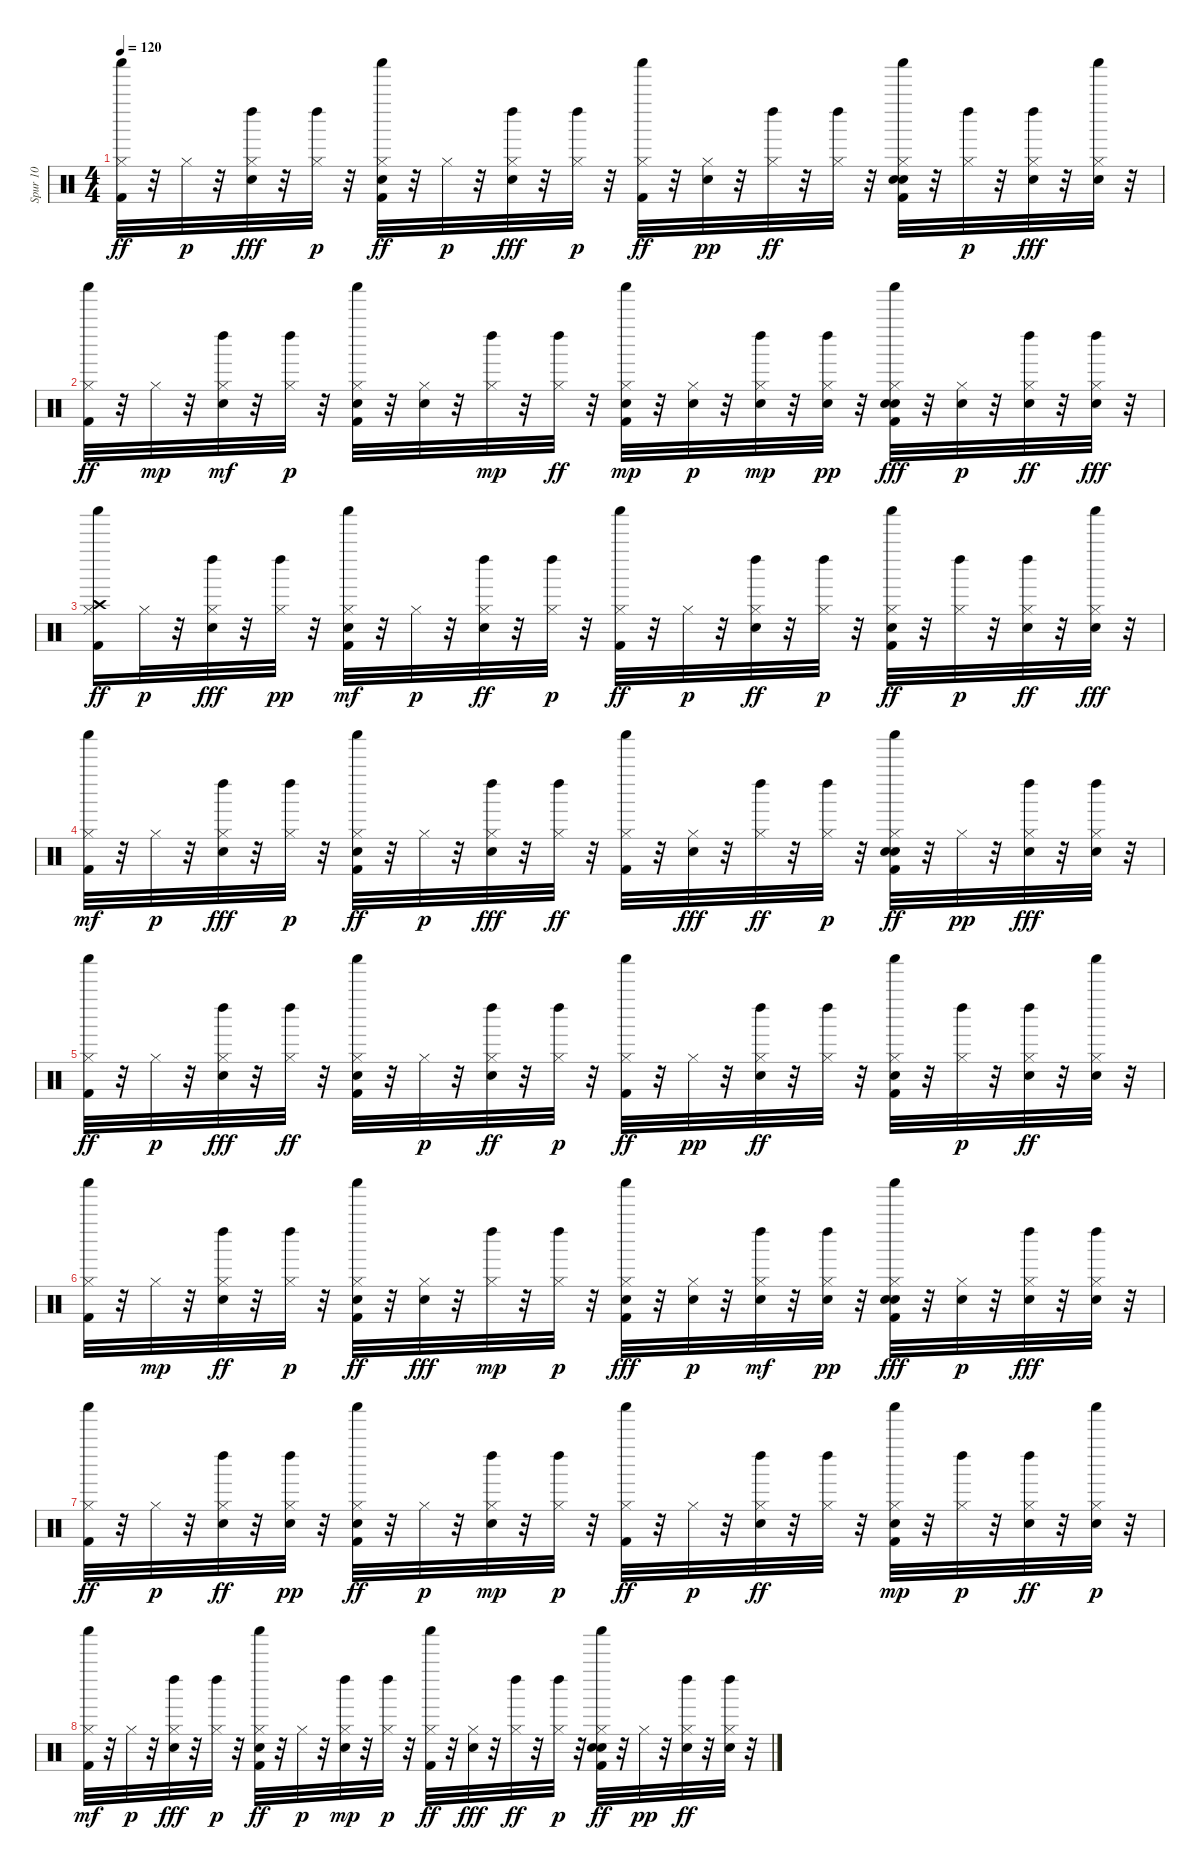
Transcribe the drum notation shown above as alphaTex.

\track ("Spur 10" "Spur 10") {instrument percussion}
\staff {score}
\articulation defaults
\ts (4 4)
\tempo 120
\clef neutral
\ks c
("Hi-Hat (closed)" "Kick (hit) 2" "Shaker (hit)").32{dy ff} r.32 "Hi-Hat (closed)".32{dy p} r.32 ("Hi-Hat (closed)" "Electric Snare (hit)" "Left Maraca (hit)").32{dy fff} r.32 ("Left Maraca (hit)" "Hi-Hat (closed)").32{dy p} r.32 ("Shaker (hit)" "Snare (hit) 2" "Kick (hit) 2" "Hi-Hat (closed)").32{dy ff} r.32 "Hi-Hat (closed)".32{dy p} r.32 ("Left Maraca (hit)" "Hi-Hat (closed)" "Electric Snare (hit)").32{dy fff} r.32 ("Left Maraca (hit)" "Hi-Hat (closed)").32{dy p} r.32 ("Hi-Hat (closed)" "Shaker (hit)" "Kick (hit) 2").32{dy ff} r.32 ("Electric Snare (hit)" "Hi-Hat (closed)").32{dy pp} r.32 ("Hi-Hat (closed)" "Left Maraca (hit)").32{dy ff} r.32 ("Hi-Hat (closed)" "Left Maraca (hit)").32 r.32 ("Hi-Hat (closed)" "Electric Snare (hit)" "Kick (hit) 2" "Shaker (hit)" "Snare (hit) 2").32 r.32 ("Hi-Hat (closed)" "Left Maraca (hit)").32{dy p} r.32 ("Hi-Hat (closed)" "Left Maraca (hit)" "Electric Snare (hit)").32{dy fff} r.32 ("Electric Snare (hit)" "Shaker (hit)" "Hi-Hat (closed)").32 r.32 |
("Hi-Hat (closed)" "Shaker (hit)" "Kick (hit) 2").32{dy ff} r.32 "Hi-Hat (closed)".32{dy mp} r.32 ("Hi-Hat (closed)" "Electric Snare (hit)" "Left Maraca (hit)").32{dy mf} r.32 ("Left Maraca (hit)" "Hi-Hat (closed)").32{dy p} r.32 ("Kick (hit) 2" "Snare (hit) 2" "Hi-Hat (closed)" "Shaker (hit)").32 r.32 ("Electric Snare (hit)" "Hi-Hat (closed)").32 r.32 ("Hi-Hat (closed)" "Left Maraca (hit)").32{dy mp} r.32 ("Hi-Hat (closed)" "Left Maraca (hit)").32{dy ff} r.32 ("Electric Snare (hit)" "Kick (hit) 2" "Shaker (hit)" "Hi-Hat (closed)").32{dy mp} r.32 ("Electric Snare (hit)" "Hi-Hat (closed)").32{dy p} r.32 ("Left Maraca (hit)" "Hi-Hat (closed)" "Electric Snare (hit)").32{dy mp} r.32 ("Electric Snare (hit)" "Hi-Hat (closed)" "Left Maraca (hit)").32{dy pp} r.32 ("Hi-Hat (closed)" "Snare (hit) 2" "Kick (hit) 2" "Electric Snare (hit)" "Shaker (hit)").32{dy fff} r.32 ("Electric Snare (hit)" "Hi-Hat (closed)").32{dy p} r.32 ("Electric Snare (hit)" "Left Maraca (hit)" "Hi-Hat (closed)").32{dy ff} r.32 ("Left Maraca (hit)" "Hi-Hat (closed)" "Electric Snare (hit)").32{dy fff} r.32 |
("Hi-Hat (closed)" "Crash high (hit)" "Shaker (hit)" "Kick (hit) 2").16{dy ff} "Hi-Hat (closed)".32{dy p} r.32 ("Left Maraca (hit)" "Hi-Hat (closed)" "Electric Snare (hit)").32{dy fff} r.32 ("Left Maraca (hit)" "Hi-Hat (closed)").32{dy pp} r.32 ("Shaker (hit)" "Kick (hit) 2" "Snare (hit) 2" "Hi-Hat (closed)").32{dy mf} r.32 "Hi-Hat (closed)".32{dy p} r.32 ("Left Maraca (hit)" "Electric Snare (hit)" "Hi-Hat (closed)").32{dy ff} r.32 ("Left Maraca (hit)" "Hi-Hat (closed)").32{dy p} r.32 ("Hi-Hat (closed)" "Kick (hit) 2" "Shaker (hit)").32{dy ff} r.32 "Hi-Hat (closed)".32{dy p} r.32 ("Electric Snare (hit)" "Hi-Hat (closed)" "Left Maraca (hit)").32{dy ff} r.32 ("Left Maraca (hit)" "Hi-Hat (closed)").32{dy p} r.32 ("Kick (hit) 2" "Shaker (hit)" "Hi-Hat (closed)" "Snare (hit) 2").32{dy ff} r.32 ("Hi-Hat (closed)" "Left Maraca (hit)").32{dy p} r.32 ("Electric Snare (hit)" "Hi-Hat (closed)" "Left Maraca (hit)").32{dy ff} r.32 ("Hi-Hat (closed)" "Shaker (hit)" "Electric Snare (hit)").32{dy fff} r.32 |
("Kick (hit) 2" "Hi-Hat (closed)" "Shaker (hit)").32{dy mf} r.32 "Hi-Hat (closed)".32{dy p} r.32 ("Hi-Hat (closed)" "Left Maraca (hit)" "Electric Snare (hit)").32{dy fff} r.32 ("Hi-Hat (closed)" "Left Maraca (hit)").32{dy p} r.32 ("Snare (hit) 2" "Hi-Hat (closed)" "Shaker (hit)" "Kick (hit) 2").32{dy ff} r.32 "Hi-Hat (closed)".32{dy p} r.32 ("Left Maraca (hit)" "Hi-Hat (closed)" "Electric Snare (hit)").32{dy fff} r.32 ("Hi-Hat (closed)" "Left Maraca (hit)").32{dy ff} r.32 ("Shaker (hit)" "Hi-Hat (closed)" "Kick (hit) 2").32 r.32 ("Hi-Hat (closed)" "Electric Snare (hit)").32{dy fff} r.32 ("Left Maraca (hit)" "Hi-Hat (closed)").32{dy ff} r.32 ("Left Maraca (hit)" "Hi-Hat (closed)").32{dy p} r.32 ("Kick (hit) 2" "Shaker (hit)" "Snare (hit) 2" "Electric Snare (hit)" "Hi-Hat (closed)").32{dy ff} r.32 "Hi-Hat (closed)".32{dy pp} r.32 ("Hi-Hat (closed)" "Left Maraca (hit)" "Electric Snare (hit)").32{dy fff} r.32 ("Hi-Hat (closed)" "Left Maraca (hit)" "Electric Snare (hit)").32 r.32 |
("Shaker (hit)" "Kick (hit) 2" "Hi-Hat (closed)").32{dy ff} r.32 "Hi-Hat (closed)".32{dy p} r.32 ("Left Maraca (hit)" "Hi-Hat (closed)" "Electric Snare (hit)").32{dy fff} r.32 ("Hi-Hat (closed)" "Left Maraca (hit)").32{dy ff} r.32 ("Shaker (hit)" "Kick (hit) 2" "Snare (hit) 2" "Hi-Hat (closed)").32 r.32 "Hi-Hat (closed)".32{dy p} r.32 ("Left Maraca (hit)" "Electric Snare (hit)" "Hi-Hat (closed)").32{dy ff} r.32 ("Left Maraca (hit)" "Hi-Hat (closed)").32{dy p} r.32 ("Hi-Hat (closed)" "Kick (hit) 2" "Shaker (hit)").32{dy ff} r.32 "Hi-Hat (closed)".32{dy pp} r.32 ("Left Maraca (hit)" "Electric Snare (hit)" "Hi-Hat (closed)").32{dy ff} r.32 ("Hi-Hat (closed)" "Left Maraca (hit)").32 r.32 ("Snare (hit) 2" "Shaker (hit)" "Hi-Hat (closed)" "Kick (hit) 2").32 r.32 ("Hi-Hat (closed)" "Left Maraca (hit)").32{dy p} r.32 ("Electric Snare (hit)" "Left Maraca (hit)" "Hi-Hat (closed)").32{dy ff} r.32 ("Shaker (hit)" "Electric Snare (hit)" "Hi-Hat (closed)").32 r.32 |
("Shaker (hit)" "Hi-Hat (closed)" "Kick (hit) 2").32 r.32 "Hi-Hat (closed)".32{dy mp} r.32 ("Electric Snare (hit)" "Left Maraca (hit)" "Hi-Hat (closed)").32{dy ff} r.32 ("Hi-Hat (closed)" "Left Maraca (hit)").32{dy p} r.32 ("Snare (hit) 2" "Hi-Hat (closed)" "Shaker (hit)" "Kick (hit) 2").32{dy ff} r.32 ("Hi-Hat (closed)" "Electric Snare (hit)").32{dy fff} r.32 ("Hi-Hat (closed)" "Left Maraca (hit)").32{dy mp} r.32 ("Left Maraca (hit)" "Hi-Hat (closed)").32{dy p} r.32 ("Shaker (hit)" "Kick (hit) 2" "Hi-Hat (closed)" "Electric Snare (hit)").32{dy fff} r.32 ("Electric Snare (hit)" "Hi-Hat (closed)").32{dy p} r.32 ("Hi-Hat (closed)" "Electric Snare (hit)" "Left Maraca (hit)").32{dy mf} r.32 ("Hi-Hat (closed)" "Left Maraca (hit)" "Electric Snare (hit)").32{dy pp} r.32 ("Snare (hit) 2" "Hi-Hat (closed)" "Shaker (hit)" "Kick (hit) 2" "Electric Snare (hit)").32{dy fff} r.32 ("Electric Snare (hit)" "Hi-Hat (closed)").32{dy p} r.32 ("Left Maraca (hit)" "Hi-Hat (closed)" "Electric Snare (hit)").32{dy fff} r.32 ("Left Maraca (hit)" "Hi-Hat (closed)" "Electric Snare (hit)").32 r.32 |
("Shaker (hit)" "Hi-Hat (closed)" "Kick (hit) 2").32{dy ff} r.32 "Hi-Hat (closed)".32{dy p} r.32 ("Hi-Hat (closed)" "Electric Snare (hit)" "Left Maraca (hit)").32{dy ff} r.32 ("Left Maraca (hit)" "Electric Snare (hit)" "Hi-Hat (closed)").32{dy pp} r.32 ("Shaker (hit)" "Hi-Hat (closed)" "Snare (hit) 2" "Kick (hit) 2").32{dy ff} r.32 "Hi-Hat (closed)".32{dy p} r.32 ("Electric Snare (hit)" "Hi-Hat (closed)" "Left Maraca (hit)").32{dy mp} r.32 ("Left Maraca (hit)" "Hi-Hat (closed)").32{dy p} r.32 ("Hi-Hat (closed)" "Kick (hit) 2" "Shaker (hit)").32{dy ff} r.32 "Hi-Hat (closed)".32{dy p} r.32 ("Electric Snare (hit)" "Hi-Hat (closed)" "Left Maraca (hit)").32{dy ff} r.32 ("Hi-Hat (closed)" "Left Maraca (hit)").32 r.32 ("Snare (hit) 2" "Kick (hit) 2" "Shaker (hit)" "Hi-Hat (closed)").32{dy mp} r.32 ("Hi-Hat (closed)" "Left Maraca (hit)").32{dy p} r.32 ("Electric Snare (hit)" "Left Maraca (hit)" "Hi-Hat (closed)").32{dy ff} r.32 ("Shaker (hit)" "Electric Snare (hit)" "Hi-Hat (closed)").32{dy p} r.32 |
("Kick (hit) 2" "Hi-Hat (closed)" "Shaker (hit)").32{dy mf} r.32 "Hi-Hat (closed)".32{dy p} r.32 ("Hi-Hat (closed)" "Left Maraca (hit)" "Electric Snare (hit)").32{dy fff} r.32 ("Left Maraca (hit)" "Hi-Hat (closed)").32{dy p} r.32 ("Kick (hit) 2" "Hi-Hat (closed)" "Shaker (hit)" "Snare (hit) 2").32{dy ff} r.32 "Hi-Hat (closed)".32{dy p} r.32 ("Electric Snare (hit)" "Hi-Hat (closed)" "Left Maraca (hit)").32{dy mp} r.32 ("Left Maraca (hit)" "Hi-Hat (closed)").32{dy p} r.32 ("Shaker (hit)" "Hi-Hat (closed)" "Kick (hit) 2").32{dy ff} r.32 ("Hi-Hat (closed)" "Electric Snare (hit)").32{dy fff} r.32 ("Left Maraca (hit)" "Hi-Hat (closed)").32{dy ff} r.32 ("Hi-Hat (closed)" "Left Maraca (hit)").32{dy p} r.32 ("Kick (hit) 2" "Snare (hit) 2" "Electric Snare (hit)" "Hi-Hat (closed)" "Shaker (hit)").32{dy ff} r.32 "Hi-Hat (closed)".32{dy pp} r.32 ("Left Maraca (hit)" "Electric Snare (hit)" "Hi-Hat (closed)").32{dy ff} r.32 ("Left Maraca (hit)" "Hi-Hat (closed)" "Electric Snare (hit)").32 r.32
